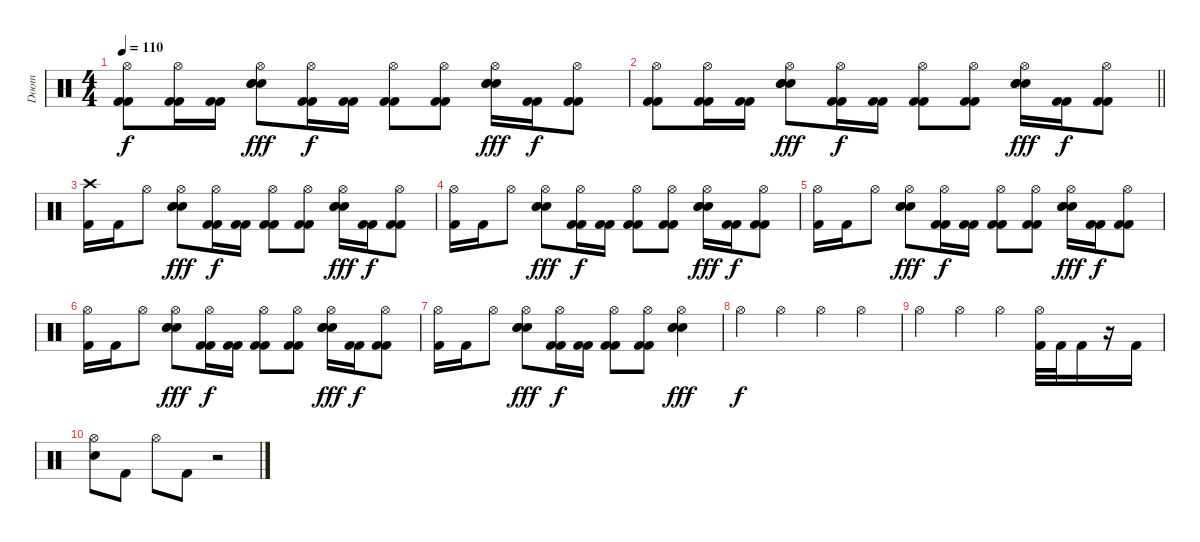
\track ("Doom" "Doom") {instrument percussion}
\staff {score}
\articulation defaults
\ts (4 4)
\tempo 110
\clef neutral
\ks c
("Hi-Hat (open)" "Kick (hit) 2" "Kick (hit) 2").8{dy f} ("Hi-Hat (open)" "Kick (hit) 2" "Kick (hit) 2").16 ("Kick (hit) 2" "Kick (hit) 2").16 ("Hi-Hat (open)" "Electric Snare (hit)" "Electric Snare (hit)" "Electric Snare (hit)").8{dy fff} ("Hi-Hat (open)" "Kick (hit) 2" "Kick (hit) 2").16{dy f} ("Kick (hit) 2" "Kick (hit) 2").16 ("Hi-Hat (open)" "Kick (hit) 2" "Kick (hit) 2").8 ("Hi-Hat (open)" "Kick (hit) 2" "Kick (hit) 2").8 ("Hi-Hat (open)" "Electric Snare (hit)" "Electric Snare (hit)" "Electric Snare (hit)").16{dy fff} ("Kick (hit) 2" "Kick (hit) 2").16{dy f} ("Hi-Hat (open)" "Kick (hit) 2" "Kick (hit) 2").8 |
\barLineRight lightlight
("Hi-Hat (open)" "Kick (hit) 2" "Kick (hit) 2").8 ("Hi-Hat (open)" "Kick (hit) 2" "Kick (hit) 2").16 ("Kick (hit) 2" "Kick (hit) 2").16 ("Hi-Hat (open)" "Electric Snare (hit)" "Electric Snare (hit)" "Electric Snare (hit)").8{dy fff} ("Hi-Hat (open)" "Kick (hit) 2" "Kick (hit) 2").16{dy f} ("Kick (hit) 2" "Kick (hit) 2").16 ("Hi-Hat (open)" "Kick (hit) 2" "Kick (hit) 2").8 ("Hi-Hat (open)" "Kick (hit) 2" "Kick (hit) 2").8 ("Hi-Hat (open)" "Electric Snare (hit)" "Electric Snare (hit)" "Electric Snare (hit)").16{dy fff} ("Kick (hit) 2" "Kick (hit) 2").16{dy f} ("Hi-Hat (open)" "Kick (hit) 2" "Kick (hit) 2").8 |
("Crash high (hit)" "Kick (hit) 2").16 "Kick (hit) 2".16 "Hi-Hat (open)".8 ("Hi-Hat (open)" "Electric Snare (hit)" "Electric Snare (hit)" "Electric Snare (hit)").8{dy fff} ("Hi-Hat (open)" "Kick (hit) 2" "Kick (hit) 2").16{dy f} ("Kick (hit) 2" "Kick (hit) 2").16 ("Hi-Hat (open)" "Kick (hit) 2" "Kick (hit) 2").8 ("Hi-Hat (open)" "Kick (hit) 2" "Kick (hit) 2").8 ("Hi-Hat (open)" "Electric Snare (hit)" "Electric Snare (hit)" "Electric Snare (hit)").16{dy fff} ("Kick (hit) 2" "Kick (hit) 2").16{dy f} ("Hi-Hat (open)" "Kick (hit) 2" "Kick (hit) 2").8 |
("Hi-Hat (open)" "Kick (hit) 2").16 "Kick (hit) 2".16 "Hi-Hat (open)".8 ("Hi-Hat (open)" "Electric Snare (hit)" "Electric Snare (hit)" "Electric Snare (hit)").8{dy fff} ("Hi-Hat (open)" "Kick (hit) 2" "Kick (hit) 2").16{dy f} ("Kick (hit) 2" "Kick (hit) 2").16 ("Hi-Hat (open)" "Kick (hit) 2" "Kick (hit) 2").8 ("Hi-Hat (open)" "Kick (hit) 2" "Kick (hit) 2").8 ("Hi-Hat (open)" "Electric Snare (hit)" "Electric Snare (hit)" "Electric Snare (hit)").16{dy fff} ("Kick (hit) 2" "Kick (hit) 2").16{dy f} ("Hi-Hat (open)" "Kick (hit) 2" "Kick (hit) 2").8 |
("Hi-Hat (open)" "Kick (hit) 2").16 "Kick (hit) 2".16 "Hi-Hat (open)".8 ("Hi-Hat (open)" "Electric Snare (hit)" "Electric Snare (hit)" "Electric Snare (hit)").8{dy fff} ("Hi-Hat (open)" "Kick (hit) 2" "Kick (hit) 2").16{dy f} ("Kick (hit) 2" "Kick (hit) 2").16 ("Hi-Hat (open)" "Kick (hit) 2" "Kick (hit) 2").8 ("Hi-Hat (open)" "Kick (hit) 2" "Kick (hit) 2").8 ("Hi-Hat (open)" "Electric Snare (hit)" "Electric Snare (hit)" "Electric Snare (hit)").16{dy fff} ("Kick (hit) 2" "Kick (hit) 2").16{dy f} ("Hi-Hat (open)" "Kick (hit) 2" "Kick (hit) 2").8 |
("Hi-Hat (open)" "Kick (hit) 2").16 "Kick (hit) 2".16 "Hi-Hat (open)".8 ("Hi-Hat (open)" "Electric Snare (hit)" "Electric Snare (hit)" "Electric Snare (hit)").8{dy fff} ("Hi-Hat (open)" "Kick (hit) 2" "Kick (hit) 2").16{dy f} ("Kick (hit) 2" "Kick (hit) 2").16 ("Hi-Hat (open)" "Kick (hit) 2" "Kick (hit) 2").8 ("Hi-Hat (open)" "Kick (hit) 2" "Kick (hit) 2").8 ("Hi-Hat (open)" "Electric Snare (hit)" "Electric Snare (hit)" "Electric Snare (hit)").16{dy fff} ("Kick (hit) 2" "Kick (hit) 2").16{dy f} ("Hi-Hat (open)" "Kick (hit) 2" "Kick (hit) 2").8 |
("Hi-Hat (open)" "Kick (hit) 2").16 "Kick (hit) 2".16 "Hi-Hat (open)".8 ("Hi-Hat (open)" "Electric Snare (hit)" "Electric Snare (hit)" "Electric Snare (hit)").8{dy fff} ("Hi-Hat (open)" "Kick (hit) 2" "Kick (hit) 2").16{dy f} ("Kick (hit) 2" "Kick (hit) 2").16 ("Hi-Hat (open)" "Kick (hit) 2" "Kick (hit) 2").8 ("Hi-Hat (open)" "Kick (hit) 2" "Kick (hit) 2").8 ("Hi-Hat (open)" "Electric Snare (hit)" "Electric Snare (hit)" "Electric Snare (hit)").4{dy fff} |
"Hi-Hat (open)".4{dy f} "Hi-Hat (open)".4 "Hi-Hat (open)".4 "Hi-Hat (open)".4 |
"Hi-Hat (open)".4 "Hi-Hat (open)".4 "Hi-Hat (open)".4 ("Kick (hit) 2" "Hi-Hat (open)").32 "Kick (hit) 2".32 "Kick (hit) 2".16 r.16 "Kick (hit) 2".16 |
("Hi-Hat (open)" "Electric Snare (hit)").8 "Kick (hit) 2".8 "Hi-Hat (open)".8 "Kick (hit) 2".8 r.2
